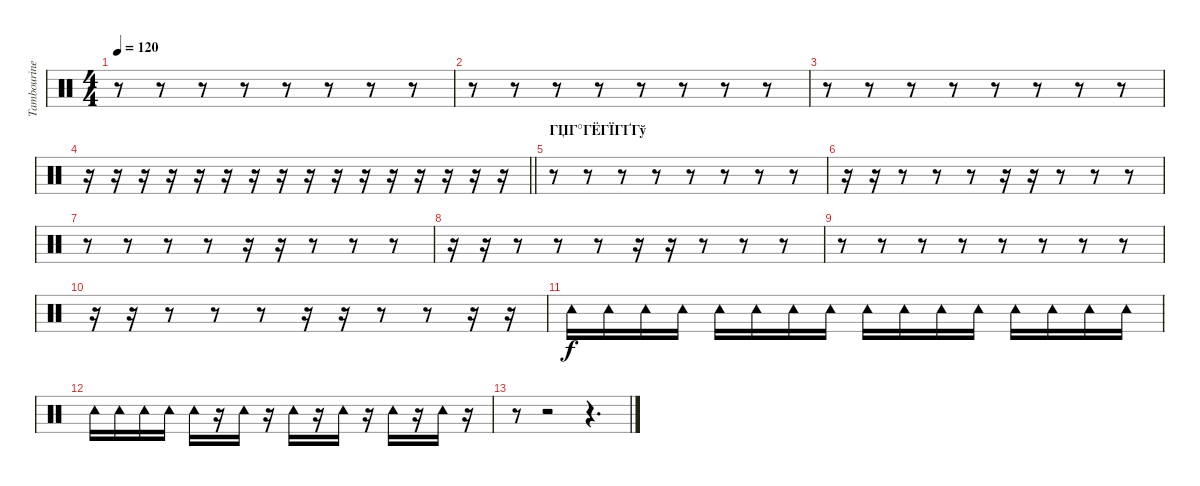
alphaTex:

\track ("Tambourine" "Tambourine") {instrument percussion}
\staff {score}
\articulation defaults
\ts (4 4)
\tempo 120
\clef neutral
\ks c
r.8{dy f} r.8 r.8 r.8 r.8 r.8 r.8 r.8 |
r.8 r.8 r.8 r.8 r.8 r.8 r.8 r.8 |
r.8 r.8 r.8 r.8 r.8 r.8 r.8 r.8 |
\barLineRight lightlight
r.16 r.16 r.16 r.16 r.16 r.16 r.16 r.16 r.16 r.16 r.16 r.16 r.16 r.16 r.16 r.16 |
\section ("" "ГЏГ°ГЁГЇГҐГў")
r.8 r.8 r.8 r.8 r.8 r.8 r.8 r.8 |
r.16 r.16 r.8 r.8 r.8 r.16 r.16 r.8 r.8 r.8 |
r.8 r.8 r.8 r.8 r.16 r.16 r.8 r.8 r.8 |
r.16 r.16 r.8 r.8 r.8 r.16 r.16 r.8 r.8 r.8 |
r.8 r.8 r.8 r.8 r.8 r.8 r.8 r.8 |
r.16 r.16 r.8 r.8 r.8 r.16 r.16 r.8 r.8 r.16 r.16 |
"Tambourine (hit)".16 "Tambourine (hit)".16 "Tambourine (hit)".16 "Tambourine (hit)".16 "Tambourine (hit)".16 "Tambourine (hit)".16 "Tambourine (hit)".16 "Tambourine (hit)".16 "Tambourine (hit)".16 "Tambourine (hit)".16 "Tambourine (hit)".16 "Tambourine (hit)".16 "Tambourine (hit)".16 "Tambourine (hit)".16 "Tambourine (hit)".16 "Tambourine (hit)".16 |
"Tambourine (hit)".16 "Tambourine (hit)".16 "Tambourine (hit)".16 "Tambourine (hit)".16 "Tambourine (hit)".16 r.16 "Tambourine (hit)".16 r.16 "Tambourine (hit)".16 r.16 "Tambourine (hit)".16 r.16 "Tambourine (hit)".16 r.16 "Tambourine (hit)".16 r.16 |
r.8 r.2 r.4{d}
